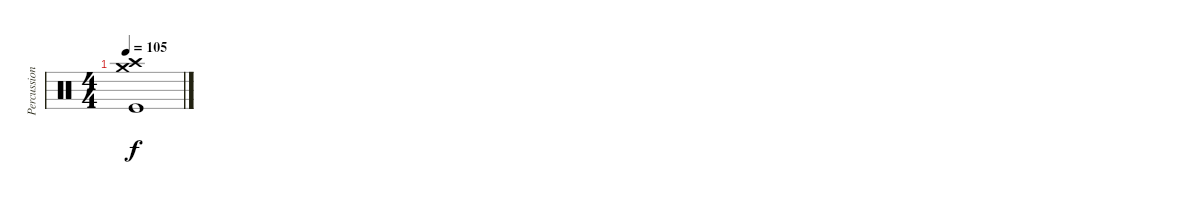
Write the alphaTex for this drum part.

\track ("Percussion" "Percussion") {instrument percussion}
\staff {score}
\articulation defaults
\ts (4 4)
\tempo 105
\clef neutral
\ks c
("Kick (hit)" "Crash high (hit)" "Crash medium (hit)").1{dy f}
